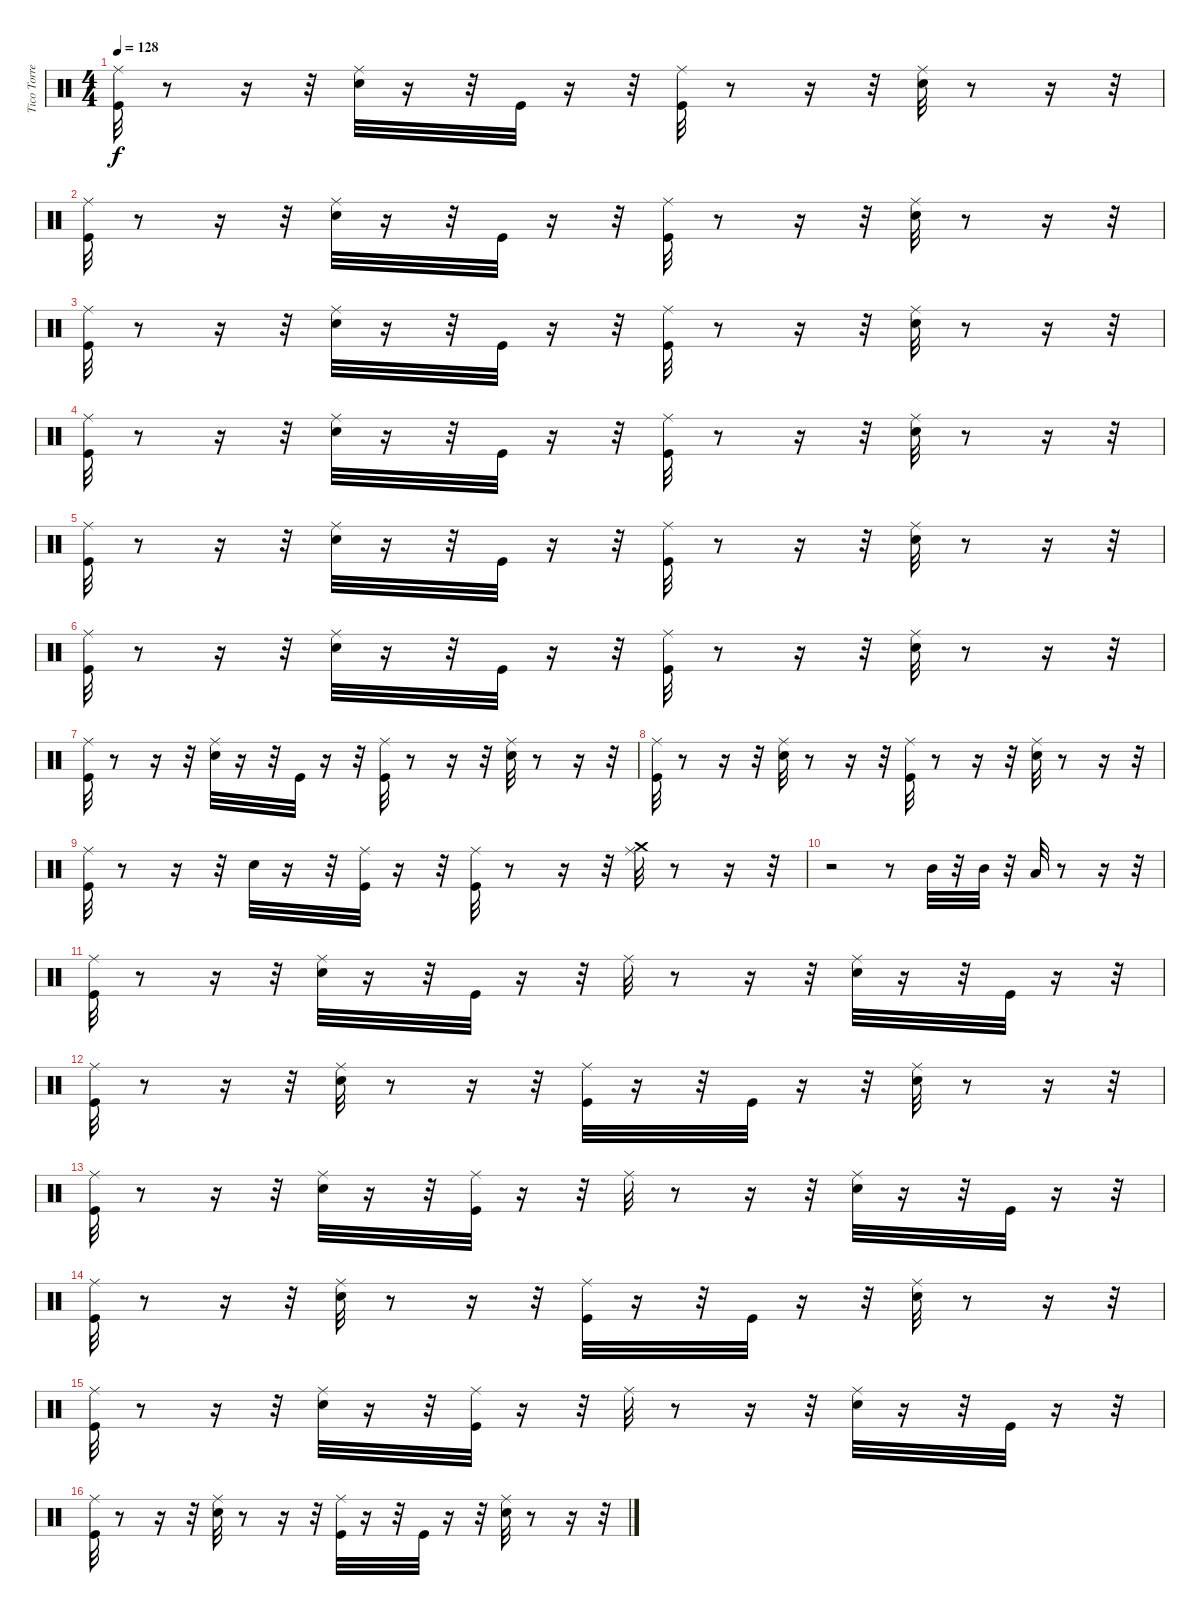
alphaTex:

\track ("Tico Torres" "Tico Torre") {instrument percussion}
\staff {score}
\articulation defaults
\ts (4 4)
\tempo 128
\clef neutral
\ks c
("Ride (middle)" "Kick (hit)").32{dy f} r.8 r.16 r.32 ("Ride (middle)" "Snare (hit) 2").32 r.16 r.32 "Kick (hit)".32 r.16 r.32 ("Ride (middle)" "Kick (hit)").32 r.8 r.16 r.32 ("Ride (middle)" "Snare (hit) 2").32 r.8 r.16 r.32 |
("Ride (middle)" "Kick (hit)").32 r.8 r.16 r.32 ("Ride (middle)" "Snare (hit) 2").32 r.16 r.32 "Kick (hit)".32 r.16 r.32 ("Ride (middle)" "Kick (hit)").32 r.8 r.16 r.32 ("Ride (middle)" "Snare (hit) 2").32 r.8 r.16 r.32 |
("Ride (middle)" "Kick (hit)").32 r.8 r.16 r.32 ("Ride (middle)" "Snare (hit) 2").32 r.16 r.32 "Kick (hit)".32 r.16 r.32 ("Ride (middle)" "Kick (hit)").32 r.8 r.16 r.32 ("Ride (middle)" "Snare (hit) 2").32 r.8 r.16 r.32 |
("Ride (middle)" "Kick (hit)").32 r.8 r.16 r.32 ("Ride (middle)" "Snare (hit) 2").32 r.16 r.32 "Kick (hit)".32 r.16 r.32 ("Ride (middle)" "Kick (hit)").32 r.8 r.16 r.32 ("Ride (middle)" "Snare (hit) 2").32 r.8 r.16 r.32 |
("Ride (middle)" "Kick (hit)").32 r.8 r.16 r.32 ("Ride (middle)" "Snare (hit) 2").32 r.16 r.32 "Kick (hit)".32 r.16 r.32 ("Ride (middle)" "Kick (hit)").32 r.8 r.16 r.32 ("Ride (middle)" "Snare (hit) 2").32 r.8 r.16 r.32 |
("Ride (middle)" "Kick (hit)").32 r.8 r.16 r.32 ("Ride (middle)" "Snare (hit) 2").32 r.16 r.32 "Kick (hit)".32 r.16 r.32 ("Ride (middle)" "Kick (hit)").32 r.8 r.16 r.32 ("Ride (middle)" "Snare (hit) 2").32 r.8 r.16 r.32 |
("Ride (middle)" "Kick (hit)").32 r.8 r.16 r.32 ("Ride (middle)" "Snare (hit) 2").32 r.16 r.32 "Kick (hit)".32 r.16 r.32 ("Ride (middle)" "Kick (hit)").32 r.8 r.16 r.32 ("Ride (middle)" "Snare (hit) 2").32 r.8 r.16 r.32 |
("Ride (middle)" "Kick (hit)").32 r.8 r.16 r.32 ("Ride (middle)" "Snare (hit) 2").32 r.8 r.16 r.32 ("Ride (middle)" "Kick (hit)").32 r.8 r.16 r.32 ("Ride (middle)" "Snare (hit) 2").32 r.8 r.16 r.32 |
("Ride (middle)" "Kick (hit)").32 r.8 r.16 r.32 "Snare (hit) 2".32 r.16 r.32 ("Ride (middle)" "Kick (hit)").32 r.16 r.32 ("Ride (middle)" "Kick (hit)").32 r.8 r.16 r.32 ("Crash medium (hit)" "Ride (middle)").32 r.8 r.16 r.32 |
r.2 r.8 "Mid Tom (hit)".32 r.32 "Mid Tom (hit)".32 r.32 "Low Tom (hit)".32 r.8 r.16 r.32 |
("Ride (middle)" "Kick (hit)").32 r.8 r.16 r.32 ("Ride (middle)" "Snare (hit) 2").32 r.16 r.32 "Kick (hit)".32 r.16 r.32 "Ride (middle)".32 r.8 r.16 r.32 ("Ride (middle)" "Snare (hit) 2").32 r.16 r.32 "Kick (hit)".32 r.16 r.32 |
("Kick (hit)" "Ride (middle)").32 r.8 r.16 r.32 ("Snare (hit) 2" "Ride (middle)").32 r.8 r.16 r.32 ("Kick (hit)" "Ride (middle)").32 r.16 r.32 "Kick (hit)".32 r.16 r.32 ("Snare (hit) 2" "Ride (middle)").32 r.8 r.16 r.32 |
("Kick (hit)" "Ride (middle)").32 r.8 r.16 r.32 ("Snare (hit) 2" "Ride (middle)").32 r.16 r.32 ("Kick (hit)" "Ride (middle)").32 r.16 r.32 "Ride (middle)".32 r.8 r.16 r.32 ("Snare (hit) 2" "Ride (middle)").32 r.16 r.32 "Kick (hit)".32 r.16 r.32 |
("Ride (middle)" "Kick (hit)").32 r.8 r.16 r.32 ("Ride (middle)" "Snare (hit) 2").32 r.8 r.16 r.32 ("Ride (middle)" "Kick (hit)").32 r.16 r.32 "Kick (hit)".32 r.16 r.32 ("Ride (middle)" "Snare (hit) 2").32 r.8 r.16 r.32 |
("Kick (hit)" "Ride (middle)").32 r.8 r.16 r.32 ("Snare (hit) 2" "Ride (middle)").32 r.16 r.32 ("Kick (hit)" "Ride (middle)").32 r.16 r.32 "Ride (middle)".32 r.8 r.16 r.32 ("Snare (hit) 2" "Ride (middle)").32 r.16 r.32 "Kick (hit)".32 r.16 r.32 |
("Ride (middle)" "Kick (hit)").32 r.8 r.16 r.32 ("Ride (middle)" "Snare (hit) 2").32 r.8 r.16 r.32 ("Ride (middle)" "Kick (hit)").32 r.16 r.32 "Kick (hit)".32 r.16 r.32 ("Ride (middle)" "Snare (hit) 2").32 r.8 r.16 r.32
